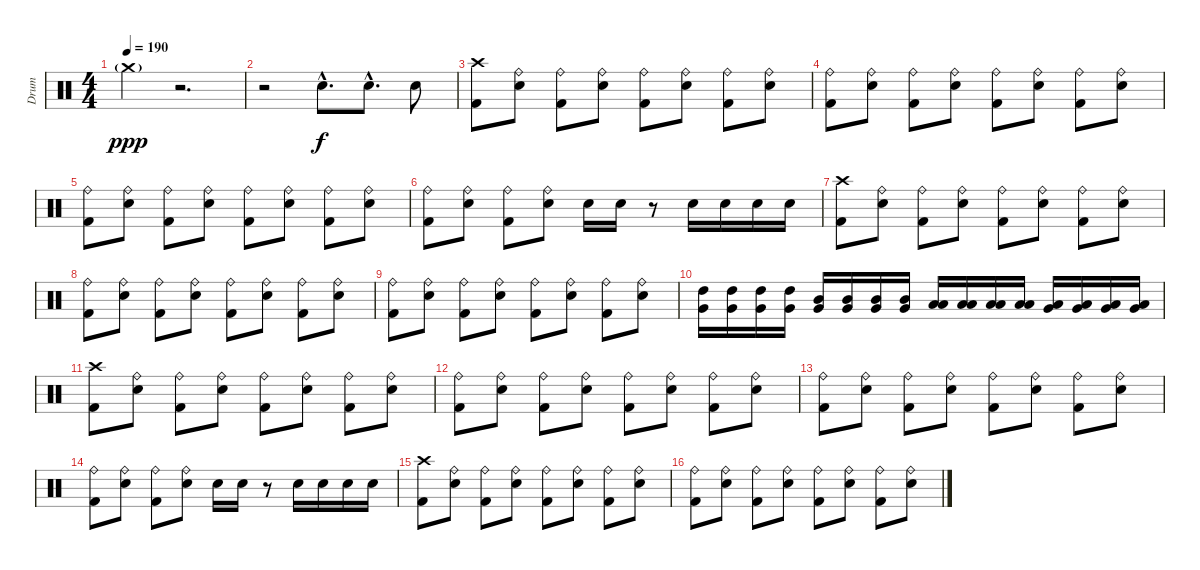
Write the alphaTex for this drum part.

\track ("Drum" "Drum") {instrument percussion}
\staff {score}
\articulation defaults
\ts (4 4)
\tempo 190
\clef neutral
\ks c "Crash medium (hit)"{g}.4{dy ppp}
r.2{d} |
r.2 "Snare (hit) 2"{hac}.8{d dy f} "Snare (hit) 2"{hac}.8{d} "Snare (hit) 2".8 |
("Crash high (hit)" "Kick (hit) 2").8 ("Ride (bell)" "Snare (hit) 2").8 ("Ride (bell)" "Kick (hit) 2").8 ("Ride (bell)" "Snare (hit) 2").8 ("Ride (bell)" "Kick (hit) 2").8 ("Ride (bell)" "Snare (hit) 2").8 ("Ride (bell)" "Kick (hit) 2").8 ("Ride (bell)" "Snare (hit) 2").8 |
("Ride (bell)" "Kick (hit) 2").8 ("Ride (bell)" "Snare (hit) 2").8 ("Ride (bell)" "Kick (hit) 2").8 ("Ride (bell)" "Snare (hit) 2").8 ("Ride (bell)" "Kick (hit) 2").8 ("Ride (bell)" "Snare (hit) 2").8 ("Ride (bell)" "Kick (hit) 2").8 ("Ride (bell)" "Snare (hit) 2").8 |
("Ride (bell)" "Kick (hit) 2").8 ("Ride (bell)" "Snare (hit) 2").8 ("Ride (bell)" "Kick (hit) 2").8 ("Ride (bell)" "Snare (hit) 2").8 ("Ride (bell)" "Kick (hit) 2").8 ("Ride (bell)" "Snare (hit) 2").8 ("Ride (bell)" "Kick (hit) 2").8 ("Ride (bell)" "Snare (hit) 2").8 |
("Ride (bell)" "Kick (hit) 2").8 ("Ride (bell)" "Snare (hit) 2").8 ("Ride (bell)" "Kick (hit) 2").8 ("Ride (bell)" "Snare (hit) 2").8 "Snare (hit) 2".16 "Snare (hit) 2".16 r.8 "Snare (hit) 2".16 "Snare (hit) 2".16 "Snare (hit) 2".16 "Snare (hit) 2".16 |
("Crash high (hit)" "Kick (hit) 2").8 ("Ride (bell)" "Snare (hit) 2").8 ("Ride (bell)" "Kick (hit) 2").8 ("Ride (bell)" "Snare (hit) 2").8 ("Ride (bell)" "Kick (hit) 2").8 ("Ride (bell)" "Snare (hit) 2").8 ("Ride (bell)" "Kick (hit) 2").8 ("Ride (bell)" "Snare (hit) 2").8 |
("Ride (bell)" "Kick (hit) 2").8 ("Ride (bell)" "Snare (hit) 2").8 ("Ride (bell)" "Kick (hit) 2").8 ("Ride (bell)" "Snare (hit) 2").8 ("Ride (bell)" "Kick (hit) 2").8 ("Ride (bell)" "Snare (hit) 2").8 ("Ride (bell)" "Kick (hit) 2").8 ("Ride (bell)" "Snare (hit) 2").8 |
("Ride (bell)" "Kick (hit) 2").8 ("Ride (bell)" "Snare (hit) 2").8 ("Ride (bell)" "Kick (hit) 2").8 ("Ride (bell)" "Snare (hit) 2").8 ("Ride (bell)" "Kick (hit) 2").8 ("Ride (bell)" "Snare (hit) 2").8 ("Ride (bell)" "Kick (hit) 2").8 ("Ride (bell)" "Snare (hit) 2").8 |
("High Tom (hit)" "Very Low Tom (hit)").16 ("High Tom (hit)" "Very Low Tom (hit)").16 ("High Tom (hit)" "Very Low Tom (hit)").16 ("High Tom (hit)" "Very Low Tom (hit)").16 ("Mid Tom (hit)" "Very Low Tom (hit)").16 ("Mid Tom (hit)" "Very Low Tom (hit)").16 ("Mid Tom (hit)" "Very Low Tom (hit)").16 ("Mid Tom (hit)" "Very Low Tom (hit)").16 ("Low Tom (hit)" "Low Floor Tom (hit)").16 ("Low Tom (hit)" "Low Floor Tom (hit)").16 ("Low Tom (hit)" "Low Floor Tom (hit)").16 ("Low Tom (hit)" "Low Floor Tom (hit)").16 ("Very Low Tom (hit)" "Low Floor Tom (hit)").16 ("Very Low Tom (hit)" "Low Floor Tom (hit)").16 ("Very Low Tom (hit)" "Low Floor Tom (hit)").16 ("Very Low Tom (hit)" "Low Floor Tom (hit)").16 |
("Crash high (hit)" "Kick (hit) 2").8 ("Ride (bell)" "Snare (hit) 2").8 ("Ride (bell)" "Kick (hit) 2").8 ("Ride (bell)" "Snare (hit) 2").8 ("Ride (bell)" "Kick (hit) 2").8 ("Ride (bell)" "Snare (hit) 2").8 ("Ride (bell)" "Kick (hit) 2").8 ("Ride (bell)" "Snare (hit) 2").8 |
("Ride (bell)" "Kick (hit) 2").8 ("Ride (bell)" "Snare (hit) 2").8 ("Ride (bell)" "Kick (hit) 2").8 ("Ride (bell)" "Snare (hit) 2").8 ("Ride (bell)" "Kick (hit) 2").8 ("Ride (bell)" "Snare (hit) 2").8 ("Ride (bell)" "Kick (hit) 2").8 ("Ride (bell)" "Snare (hit) 2").8 |
("Ride (bell)" "Kick (hit) 2").8 ("Ride (bell)" "Snare (hit) 2").8 ("Ride (bell)" "Kick (hit) 2").8 ("Ride (bell)" "Snare (hit) 2").8 ("Ride (bell)" "Kick (hit) 2").8 ("Ride (bell)" "Snare (hit) 2").8 ("Ride (bell)" "Kick (hit) 2").8 ("Ride (bell)" "Snare (hit) 2").8 |
("Ride (bell)" "Kick (hit) 2").8 ("Ride (bell)" "Snare (hit) 2").8 ("Ride (bell)" "Kick (hit) 2").8 ("Ride (bell)" "Snare (hit) 2").8 "Snare (hit) 2".16 "Snare (hit) 2".16 r.8 "Snare (hit) 2".16 "Snare (hit) 2".16 "Snare (hit) 2".16 "Snare (hit) 2".16 |
("Crash high (hit)" "Kick (hit) 2").8 ("Ride (bell)" "Snare (hit) 2").8 ("Ride (bell)" "Kick (hit) 2").8 ("Ride (bell)" "Snare (hit) 2").8 ("Ride (bell)" "Kick (hit) 2").8 ("Ride (bell)" "Snare (hit) 2").8 ("Ride (bell)" "Kick (hit) 2").8 ("Ride (bell)" "Snare (hit) 2").8 |
("Ride (bell)" "Kick (hit) 2").8 ("Ride (bell)" "Snare (hit) 2").8 ("Ride (bell)" "Kick (hit) 2").8 ("Ride (bell)" "Snare (hit) 2").8 ("Ride (bell)" "Kick (hit) 2").8 ("Ride (bell)" "Snare (hit) 2").8 ("Ride (bell)" "Kick (hit) 2").8 ("Ride (bell)" "Snare (hit) 2").8
